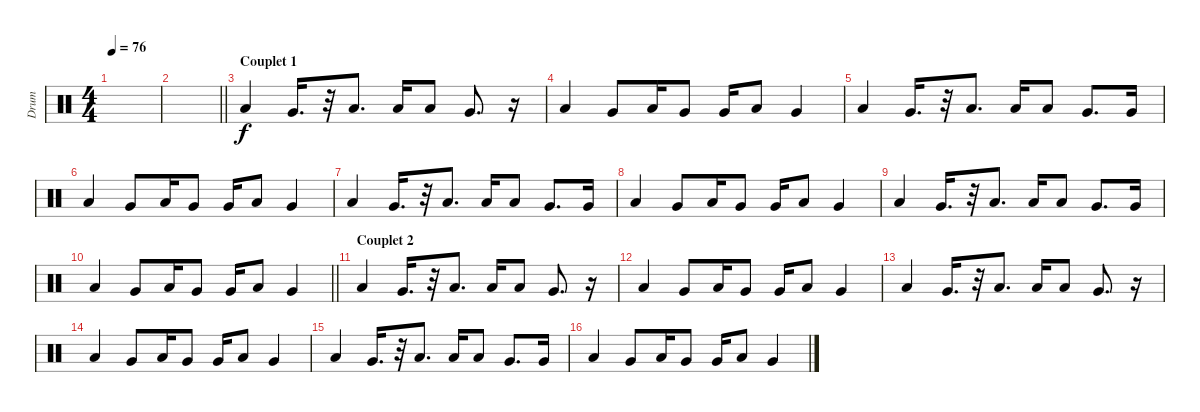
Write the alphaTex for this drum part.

\track ("Drum" "Drum") {instrument percussion}
\staff {score}
\articulation defaults
\ts (4 4)
\tempo 76
\clef neutral
\ks c
|
\barLineRight lightlight
|
\section ("" "Couplet 1")
"Low Floor Tom (hit)".4 "Very Low Tom (hit)".16{d} r.32 "Low Floor Tom (hit)".8{d} "Low Floor Tom (hit)".16 "Low Floor Tom (hit)".8 "Very Low Tom (hit)".8{d} r.16 |
"Low Floor Tom (hit)".4 "Very Low Tom (hit)".8 "Low Floor Tom (hit)".16 "Very Low Tom (hit)".8 "Very Low Tom (hit)".16 "Low Floor Tom (hit)".8 "Very Low Tom (hit)".4 |
"Low Floor Tom (hit)".4 "Very Low Tom (hit)".16{d} r.32 "Low Floor Tom (hit)".8{d} "Low Floor Tom (hit)".16 "Low Floor Tom (hit)".8 "Very Low Tom (hit)".8{d} "Very Low Tom (hit)".16 |
"Low Floor Tom (hit)".4 "Very Low Tom (hit)".8 "Low Floor Tom (hit)".16 "Very Low Tom (hit)".8 "Very Low Tom (hit)".16 "Low Floor Tom (hit)".8 "Very Low Tom (hit)".4 |
"Low Floor Tom (hit)".4 "Very Low Tom (hit)".16{d} r.32 "Low Floor Tom (hit)".8{d} "Low Floor Tom (hit)".16 "Low Floor Tom (hit)".8 "Very Low Tom (hit)".8{d} "Very Low Tom (hit)".16 |
"Low Floor Tom (hit)".4 "Very Low Tom (hit)".8 "Low Floor Tom (hit)".16 "Very Low Tom (hit)".8 "Very Low Tom (hit)".16 "Low Floor Tom (hit)".8 "Very Low Tom (hit)".4 |
"Low Floor Tom (hit)".4 "Very Low Tom (hit)".16{d} r.32 "Low Floor Tom (hit)".8{d} "Low Floor Tom (hit)".16 "Low Floor Tom (hit)".8 "Very Low Tom (hit)".8{d} "Very Low Tom (hit)".16 |
\barLineRight lightlight "Low Floor Tom (hit)".4 "Very Low Tom (hit)".8 "Low Floor Tom (hit)".16 "Very Low Tom (hit)".8 "Very Low Tom (hit)".16 "Low Floor Tom (hit)".8 "Very Low Tom (hit)".4
|
\section ("" "Couplet 2")
"Low Floor Tom (hit)".4 "Very Low Tom (hit)".16{d} r.32 "Low Floor Tom (hit)".8{d} "Low Floor Tom (hit)".16 "Low Floor Tom (hit)".8 "Very Low Tom (hit)".8{d} r.16 |
"Low Floor Tom (hit)".4 "Very Low Tom (hit)".8 "Low Floor Tom (hit)".16 "Very Low Tom (hit)".8 "Very Low Tom (hit)".16 "Low Floor Tom (hit)".8 "Very Low Tom (hit)".4 |
"Low Floor Tom (hit)".4 "Very Low Tom (hit)".16{d} r.32 "Low Floor Tom (hit)".8{d} "Low Floor Tom (hit)".16 "Low Floor Tom (hit)".8 "Very Low Tom (hit)".8{d} r.16 |
"Low Floor Tom (hit)".4 "Very Low Tom (hit)".8 "Low Floor Tom (hit)".16 "Very Low Tom (hit)".8 "Very Low Tom (hit)".16 "Low Floor Tom (hit)".8 "Very Low Tom (hit)".4 |
"Low Floor Tom (hit)".4 "Very Low Tom (hit)".16{d} r.32 "Low Floor Tom (hit)".8{d} "Low Floor Tom (hit)".16 "Low Floor Tom (hit)".8 "Very Low Tom (hit)".8{d} "Very Low Tom (hit)".16 |
"Low Floor Tom (hit)".4 "Very Low Tom (hit)".8 "Low Floor Tom (hit)".16 "Very Low Tom (hit)".8 "Very Low Tom (hit)".16 "Low Floor Tom (hit)".8 "Very Low Tom (hit)".4
